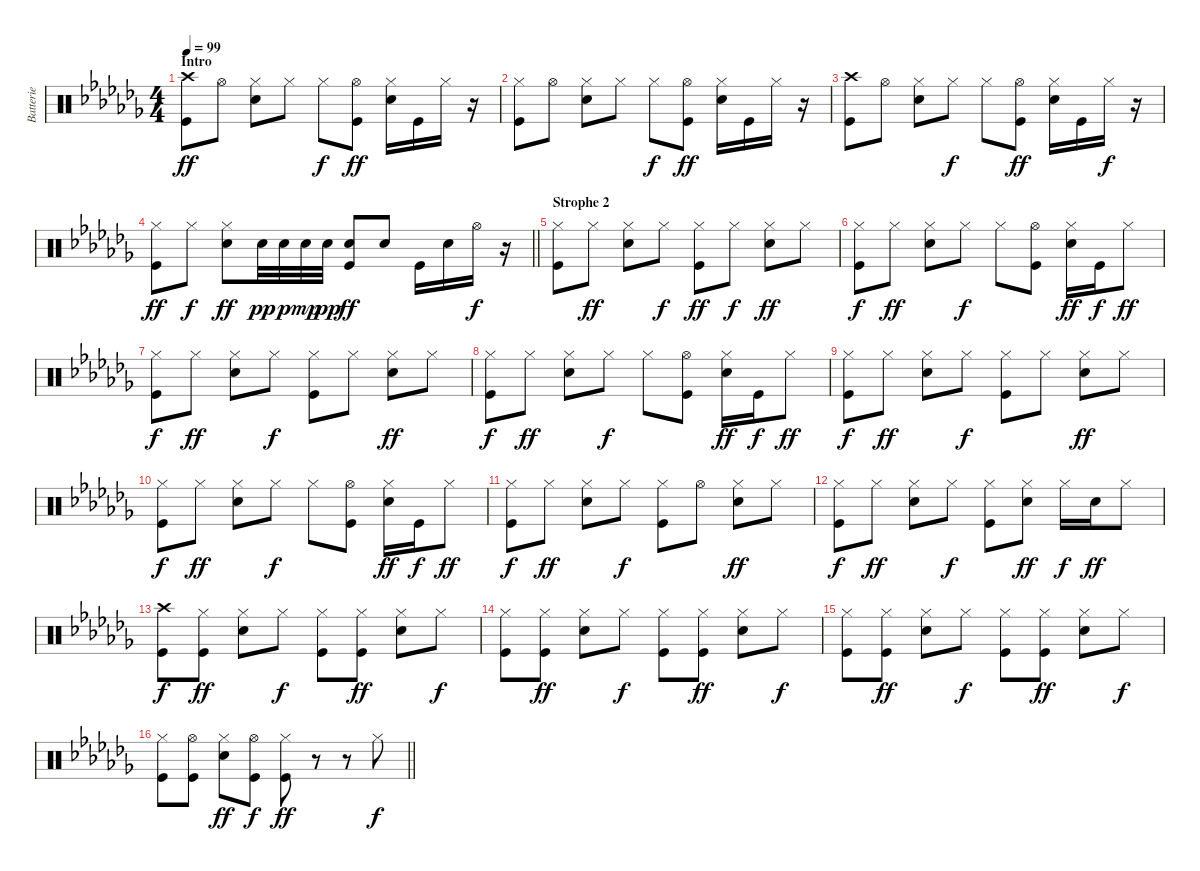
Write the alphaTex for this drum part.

\track ("Batterie" "Batterie") {instrument percussion}
\staff {score}
\articulation defaults
\ts (4 4)
\section ("" "Intro")
\tempo 99
\clef neutral
\ks cb
("Crash high (hit)" "Kick (hit)").8{dy ff} "Hi-Hat (open)".8 ("Hi-Hat (closed)" "Snare (hit) 2").8 "Hi-Hat (closed)".8 "Hi-Hat (closed)".8{dy f} ("Hi-Hat (open)" "Kick (hit)").8{dy ff} ("Hi-Hat (closed)" "Snare (hit) 2").16 "Kick (hit)".16 "Hi-Hat (closed)".16 r.16 |
("Hi-Hat (closed)" "Kick (hit)").8 "Hi-Hat (open)".8 ("Hi-Hat (closed)" "Snare (hit) 2").8 "Hi-Hat (closed)".8 "Hi-Hat (closed)".8{dy f} ("Hi-Hat (open)" "Kick (hit)").8{dy ff} ("Hi-Hat (closed)" "Snare (hit) 2").16 "Kick (hit)".16 "Hi-Hat (closed)".16 r.16 |
("Crash high (hit)" "Kick (hit)").8 "Hi-Hat (open)".8 ("Hi-Hat (closed)" "Snare (hit) 2").8 "Hi-Hat (closed)".8{dy f} "Hi-Hat (closed)".8 ("Hi-Hat (open)" "Kick (hit)").8{dy ff} ("Hi-Hat (closed)" "Snare (hit) 2").16 "Kick (hit)".16 "Hi-Hat (closed)".16{dy f} r.16 |
\barLineRight lightlight
("Hi-Hat (closed)" "Kick (hit)").8{dy ff} "Hi-Hat (closed)".8{dy f} ("Hi-Hat (closed)" "Snare (hit) 2").8{dy ff} "Snare (hit) 2".32{dy pp} "Snare (hit) 2".32{dy p} "Snare (hit) 2".32{dy mp} "Snare (hit) 2".32{dy pp} ("Snare (hit) 2" "Kick (hit)").8{dy ff} "Snare (hit) 2".8 "Kick (hit)".16 "Snare (hit) 2".16 "Hi-Hat (open)".16{dy f} r.16 |
\section ("" "Strophe 2")
("Hi-Hat (closed)" "Kick (hit)").8 "Hi-Hat (closed)".8{dy ff} ("Hi-Hat (closed)" "Snare (hit) 2").8 "Hi-Hat (closed)".8{dy f} ("Hi-Hat (closed)" "Kick (hit)").8{dy ff} "Hi-Hat (closed)".8{dy f} ("Hi-Hat (closed)" "Snare (hit) 2").8{dy ff} "Hi-Hat (closed)".8 |
("Hi-Hat (closed)" "Kick (hit)").8{dy f} "Hi-Hat (closed)".8{dy ff} ("Hi-Hat (closed)" "Snare (hit) 2").8 "Hi-Hat (closed)".8{dy f} "Hi-Hat (closed)".8 ("Hi-Hat (open)" "Kick (hit)").8 ("Hi-Hat (closed)" "Snare (hit) 2").16{dy ff} "Kick (hit)".16{dy f} "Hi-Hat (closed)".8{dy ff} |
("Hi-Hat (closed)" "Kick (hit)").8{dy f} "Hi-Hat (closed)".8{dy ff} ("Hi-Hat (closed)" "Snare (hit) 2").8 "Hi-Hat (closed)".8{dy f} ("Hi-Hat (closed)" "Kick (hit)").8 "Hi-Hat (closed)".8 ("Hi-Hat (closed)" "Snare (hit) 2").8{dy ff} "Hi-Hat (closed)".8 |
("Hi-Hat (closed)" "Kick (hit)").8{dy f} "Hi-Hat (closed)".8{dy ff} ("Hi-Hat (closed)" "Snare (hit) 2").8 "Hi-Hat (closed)".8{dy f} "Hi-Hat (closed)".8 ("Hi-Hat (open)" "Kick (hit)").8 ("Hi-Hat (closed)" "Snare (hit) 2").16{dy ff} "Kick (hit)".16{dy f} "Hi-Hat (closed)".8{dy ff} |
("Hi-Hat (closed)" "Kick (hit)").8{dy f} "Hi-Hat (closed)".8{dy ff} ("Hi-Hat (closed)" "Snare (hit) 2").8 "Hi-Hat (closed)".8{dy f} ("Hi-Hat (closed)" "Kick (hit)").8 "Hi-Hat (closed)".8 ("Hi-Hat (closed)" "Snare (hit) 2").8{dy ff} "Hi-Hat (closed)".8 |
("Hi-Hat (closed)" "Kick (hit)").8{dy f} "Hi-Hat (closed)".8{dy ff} ("Hi-Hat (closed)" "Snare (hit) 2").8 "Hi-Hat (closed)".8{dy f} "Hi-Hat (closed)".8 ("Hi-Hat (open)" "Kick (hit)").8 ("Hi-Hat (closed)" "Snare (hit) 2").16{dy ff} "Kick (hit)".16{dy f} "Hi-Hat (closed)".8{dy ff} |
("Hi-Hat (closed)" "Kick (hit)").8{dy f} "Hi-Hat (closed)".8{dy ff} ("Hi-Hat (closed)" "Snare (hit) 2").8 "Hi-Hat (closed)".8{dy f} ("Hi-Hat (closed)" "Kick (hit)").8 "Hi-Hat (open)".8 ("Hi-Hat (closed)" "Snare (hit) 2").8{dy ff} "Hi-Hat (closed)".8 |
("Hi-Hat (closed)" "Kick (hit)").8{dy f} "Hi-Hat (closed)".8{dy ff} ("Hi-Hat (closed)" "Snare (hit) 2").8 "Hi-Hat (closed)".8{dy f} ("Hi-Hat (closed)" "Kick (hit)").8 ("Hi-Hat (closed)" "Snare (hit) 2").8{dy ff} "Hi-Hat (closed)".16{dy f} "Snare (hit) 2".16{dy ff} "Hi-Hat (closed)".8 |
("Crash high (hit)" "Kick (hit)").8{dy f} ("Hi-Hat (closed)" "Kick (hit)").8{dy ff} ("Hi-Hat (closed)" "Snare (hit) 2").8 "Hi-Hat (closed)".8{dy f} ("Hi-Hat (closed)" "Kick (hit)").8 ("Hi-Hat (closed)" "Kick (hit)").8{dy ff} ("Hi-Hat (closed)" "Snare (hit) 2").8 "Hi-Hat (closed)".8{dy f} |
("Hi-Hat (closed)" "Kick (hit)").8 ("Hi-Hat (closed)" "Kick (hit)").8{dy ff} ("Hi-Hat (closed)" "Snare (hit) 2").8 "Hi-Hat (closed)".8{dy f} ("Hi-Hat (closed)" "Kick (hit)").8 ("Hi-Hat (closed)" "Kick (hit)").8{dy ff} ("Hi-Hat (closed)" "Snare (hit) 2").8 "Hi-Hat (closed)".8{dy f} |
("Hi-Hat (closed)" "Kick (hit)").8 ("Hi-Hat (closed)" "Kick (hit)").8{dy ff} ("Hi-Hat (closed)" "Snare (hit) 2").8 "Hi-Hat (closed)".8{dy f} ("Hi-Hat (closed)" "Kick (hit)").8 ("Hi-Hat (closed)" "Kick (hit)").8{dy ff} ("Hi-Hat (closed)" "Snare (hit) 2").8 "Hi-Hat (closed)".8{dy f} |
\barLineRight lightlight
("Hi-Hat (closed)" "Kick (hit)").8 ("Hi-Hat (open)" "Kick (hit)").8 ("Hi-Hat (closed)" "Snare (hit) 2").8{dy ff} ("Hi-Hat (open)" "Kick (hit)").8{dy f} ("Hi-Hat (closed)" "Kick (hit)").8{dy ff} r.8 r.8 "Hi-Hat (closed)".8{dy f}
